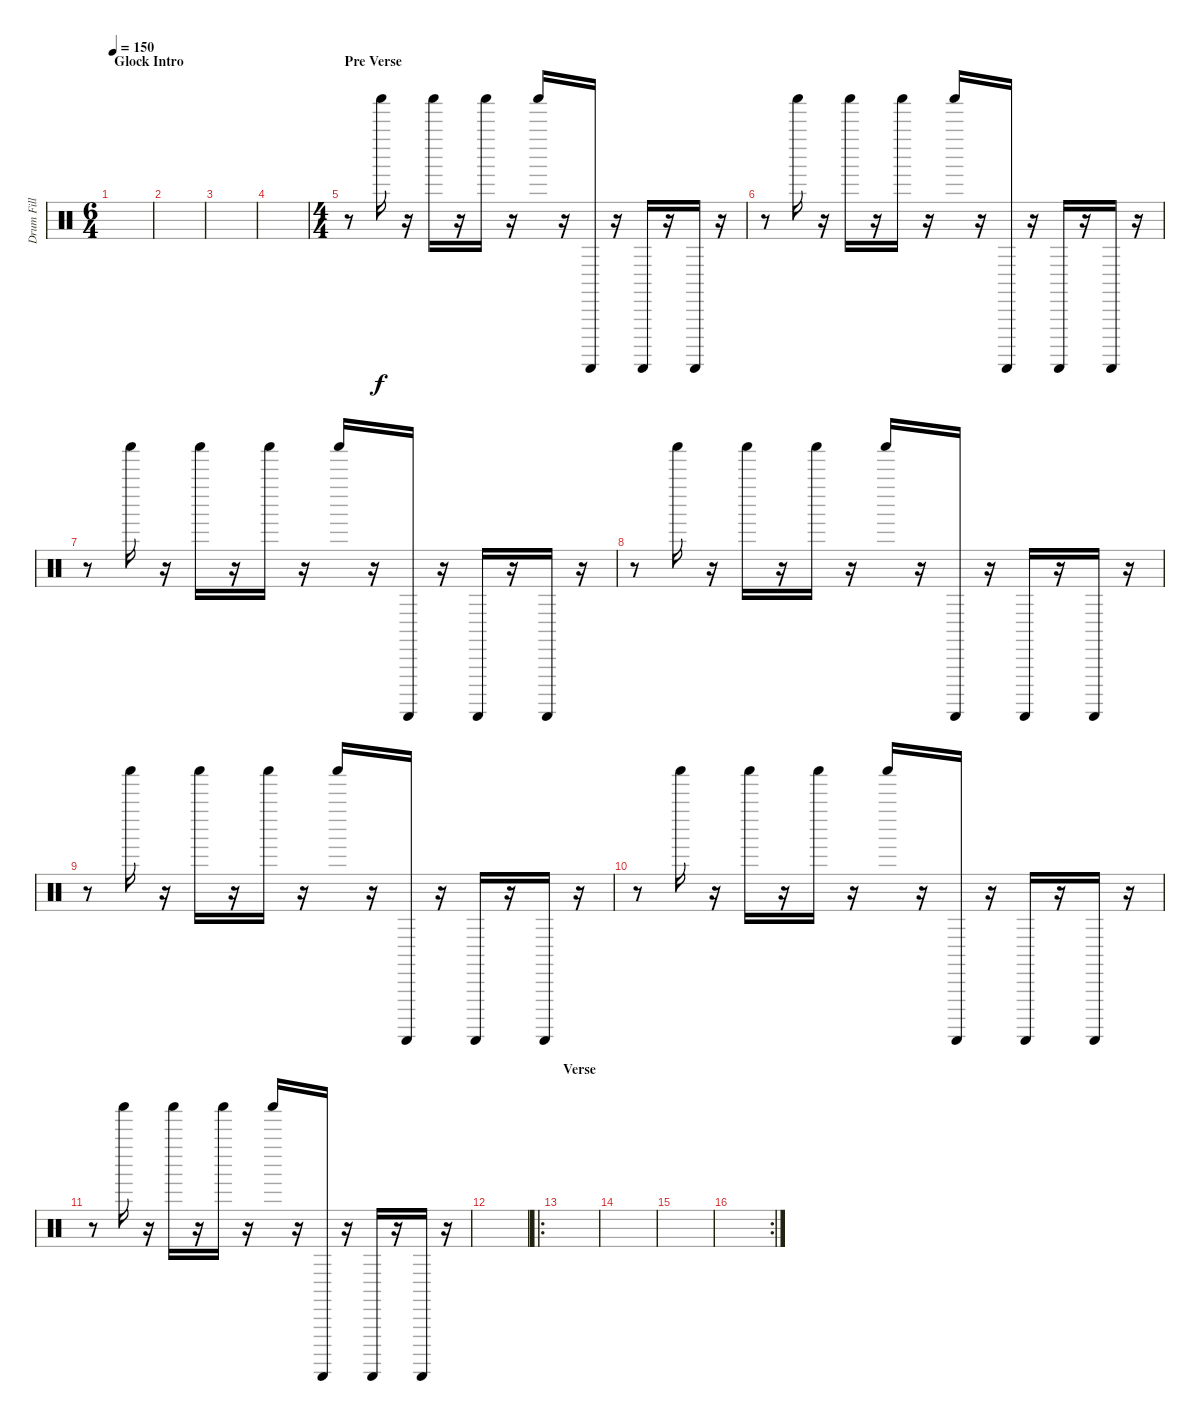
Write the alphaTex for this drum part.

\track ("Drum Fill" "Drum Fill") {instrument percussion}
\staff {score}
\articulation defaults
\ts (6 4)
\section ("" "Glock Intro")
\tempo 150
\tempo 120
\tempo 150
\clef neutral
\ks c
|
|
|
|
\ts (4 4)
\section ("" "Pre Verse")
r.8 "Shaker (hit)".16 r.16 "Shaker (hit)".16 r.16 "Shaker (hit)".16 r.16 "Shaker (hit)".16 r.16 "Guiro (scrap-return)".16 r.16 "Guiro (scrap-return)".16 r.16 "Guiro (scrap-return)".16 r.16 |
r.8 "Shaker (hit)".16 r.16 "Shaker (hit)".16 r.16 "Shaker (hit)".16 r.16 "Shaker (hit)".16 r.16 "Guiro (scrap-return)".16 r.16 "Guiro (scrap-return)".16 r.16 "Guiro (scrap-return)".16 r.16 |
r.8 "Shaker (hit)".16 r.16 "Shaker (hit)".16 r.16 "Shaker (hit)".16 r.16 "Shaker (hit)".16 r.16 "Guiro (scrap-return)".16 r.16 "Guiro (scrap-return)".16 r.16 "Guiro (scrap-return)".16 r.16 |
r.8 "Shaker (hit)".16 r.16 "Shaker (hit)".16 r.16 "Shaker (hit)".16 r.16 "Shaker (hit)".16 r.16 "Guiro (scrap-return)".16 r.16 "Guiro (scrap-return)".16 r.16 "Guiro (scrap-return)".16 r.16 |
r.8 "Shaker (hit)".16 r.16 "Shaker (hit)".16 r.16 "Shaker (hit)".16 r.16 "Shaker (hit)".16 r.16 "Guiro (scrap-return)".16 r.16 "Guiro (scrap-return)".16 r.16 "Guiro (scrap-return)".16 r.16 |
r.8 "Shaker (hit)".16 r.16 "Shaker (hit)".16 r.16 "Shaker (hit)".16 r.16 "Shaker (hit)".16 r.16 "Guiro (scrap-return)".16 r.16 "Guiro (scrap-return)".16 r.16 "Guiro (scrap-return)".16 r.16 |
r.8 "Shaker (hit)".16 r.16 "Shaker (hit)".16 r.16 "Shaker (hit)".16 r.16 "Shaker (hit)".16 r.16 "Guiro (scrap-return)".16 r.16 "Guiro (scrap-return)".16 r.16 "Guiro (scrap-return)".16 r.16 |
|
\ro
\section ("" "Verse")
|
|
|
\rc 2
